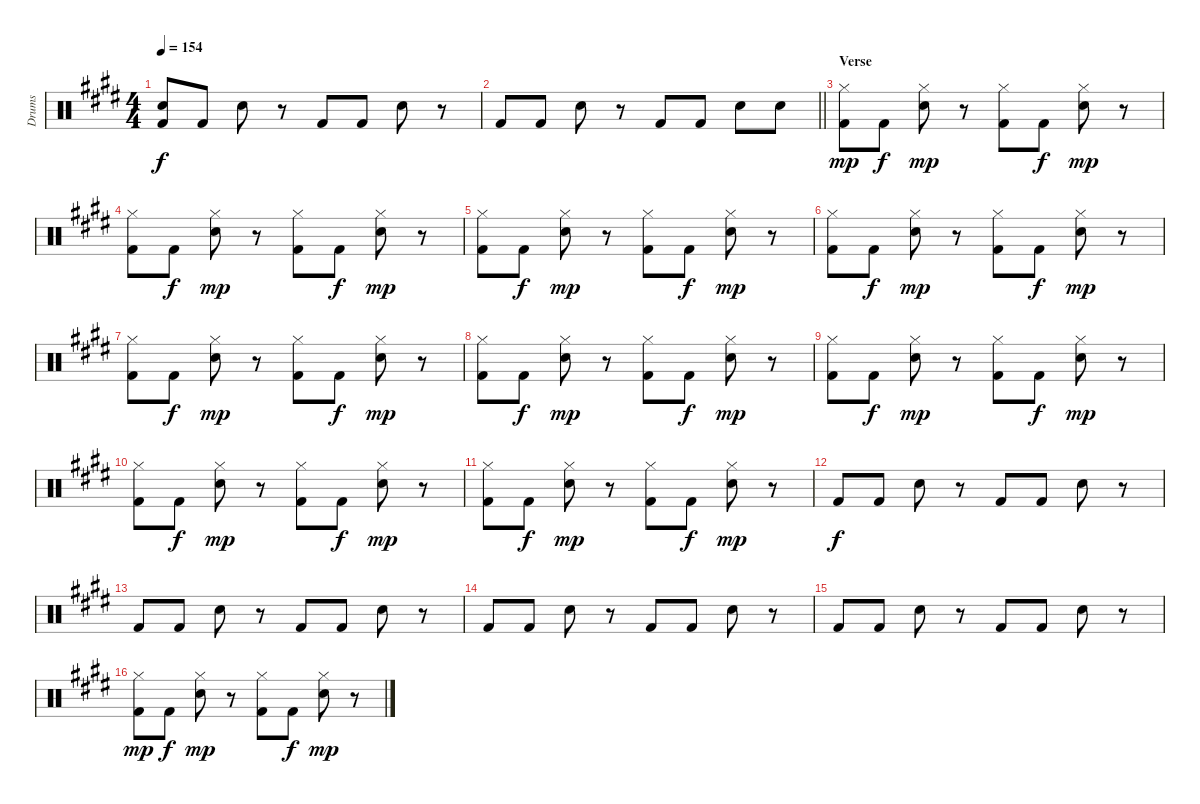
\track ("Drums" "Drums") {instrument percussion}
\staff {score}
\articulation defaults
\ts (4 4)
\tempo 154
\clef neutral
\ks e
("Electric Snare (hit)" "Kick (hit) 2").8{dy f} "Kick (hit) 2".8 "Electric Snare (hit)".8 r.8 "Kick (hit) 2".8 "Kick (hit) 2".8 "Electric Snare (hit)".8 r.8 |
\barLineRight lightlight "Kick (hit) 2".8 "Kick (hit) 2".8 "Electric Snare (hit)".8
r.8 "Kick (hit) 2".8 "Kick (hit) 2".8 "Electric Snare (hit)".8 "Electric Snare (hit)".8 |
\section ("" "Verse")
("Hi-Hat (closed)" "Kick (hit) 2").8{dy mp} "Kick (hit) 2".8{dy f} ("Hi-Hat (closed)" "Electric Snare (hit)").8{dy mp} r.8 ("Hi-Hat (closed)" "Kick (hit) 2").8 "Kick (hit) 2".8{dy f} ("Hi-Hat (closed)" "Electric Snare (hit)").8{dy mp} r.8 |
("Hi-Hat (closed)" "Kick (hit) 2").8 "Kick (hit) 2".8{dy f} ("Hi-Hat (closed)" "Electric Snare (hit)").8{dy mp} r.8 ("Hi-Hat (closed)" "Kick (hit) 2").8 "Kick (hit) 2".8{dy f} ("Hi-Hat (closed)" "Electric Snare (hit)").8{dy mp} r.8 |
("Hi-Hat (closed)" "Kick (hit) 2").8 "Kick (hit) 2".8{dy f} ("Hi-Hat (closed)" "Electric Snare (hit)").8{dy mp} r.8 ("Hi-Hat (closed)" "Kick (hit) 2").8 "Kick (hit) 2".8{dy f} ("Hi-Hat (closed)" "Electric Snare (hit)").8{dy mp} r.8 |
("Hi-Hat (closed)" "Kick (hit) 2").8 "Kick (hit) 2".8{dy f} ("Hi-Hat (closed)" "Electric Snare (hit)").8{dy mp} r.8 ("Hi-Hat (closed)" "Kick (hit) 2").8 "Kick (hit) 2".8{dy f} ("Hi-Hat (closed)" "Electric Snare (hit)").8{dy mp} r.8 |
("Hi-Hat (closed)" "Kick (hit) 2").8 "Kick (hit) 2".8{dy f} ("Hi-Hat (closed)" "Electric Snare (hit)").8{dy mp} r.8 ("Hi-Hat (closed)" "Kick (hit) 2").8 "Kick (hit) 2".8{dy f} ("Hi-Hat (closed)" "Electric Snare (hit)").8{dy mp} r.8 |
("Hi-Hat (closed)" "Kick (hit) 2").8 "Kick (hit) 2".8{dy f} ("Hi-Hat (closed)" "Electric Snare (hit)").8{dy mp} r.8 ("Hi-Hat (closed)" "Kick (hit) 2").8 "Kick (hit) 2".8{dy f} ("Hi-Hat (closed)" "Electric Snare (hit)").8{dy mp} r.8 |
("Hi-Hat (closed)" "Kick (hit) 2").8 "Kick (hit) 2".8{dy f} ("Hi-Hat (closed)" "Electric Snare (hit)").8{dy mp} r.8 ("Hi-Hat (closed)" "Kick (hit) 2").8 "Kick (hit) 2".8{dy f} ("Hi-Hat (closed)" "Electric Snare (hit)").8{dy mp} r.8 |
("Hi-Hat (closed)" "Kick (hit) 2").8 "Kick (hit) 2".8{dy f} ("Hi-Hat (closed)" "Electric Snare (hit)").8{dy mp} r.8 ("Hi-Hat (closed)" "Kick (hit) 2").8 "Kick (hit) 2".8{dy f} ("Hi-Hat (closed)" "Electric Snare (hit)").8{dy mp} r.8 |
("Hi-Hat (closed)" "Kick (hit) 2").8 "Kick (hit) 2".8{dy f} ("Hi-Hat (closed)" "Electric Snare (hit)").8{dy mp} r.8 ("Hi-Hat (closed)" "Kick (hit) 2").8 "Kick (hit) 2".8{dy f} ("Hi-Hat (closed)" "Electric Snare (hit)").8{dy mp} r.8 |
"Kick (hit) 2".8{dy f} "Kick (hit) 2".8 "Electric Snare (hit)".8 r.8 "Kick (hit) 2".8 "Kick (hit) 2".8 "Electric Snare (hit)".8 r.8 |
"Kick (hit) 2".8 "Kick (hit) 2".8 "Electric Snare (hit)".8 r.8 "Kick (hit) 2".8 "Kick (hit) 2".8 "Electric Snare (hit)".8 r.8 |
"Kick (hit) 2".8 "Kick (hit) 2".8 "Electric Snare (hit)".8 r.8 "Kick (hit) 2".8 "Kick (hit) 2".8 "Electric Snare (hit)".8 r.8 |
"Kick (hit) 2".8 "Kick (hit) 2".8 "Electric Snare (hit)".8 r.8 "Kick (hit) 2".8 "Kick (hit) 2".8 "Electric Snare (hit)".8 r.8 |
("Hi-Hat (closed)" "Kick (hit) 2").8{dy mp} "Kick (hit) 2".8{dy f} ("Hi-Hat (closed)" "Electric Snare (hit)").8{dy mp} r.8 ("Hi-Hat (closed)" "Kick (hit) 2").8 "Kick (hit) 2".8{dy f} ("Hi-Hat (closed)" "Electric Snare (hit)").8{dy mp} r.8
